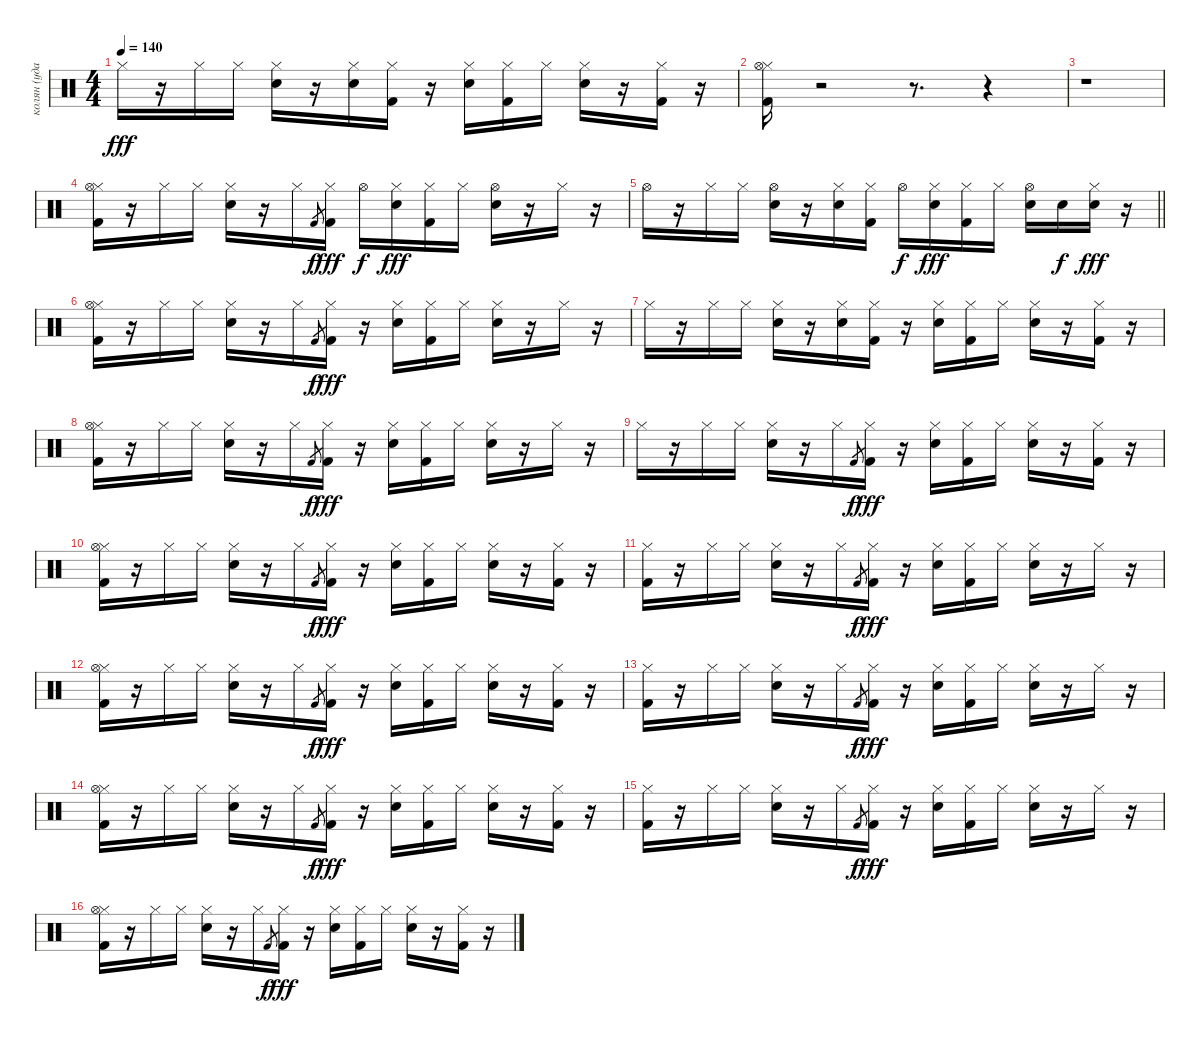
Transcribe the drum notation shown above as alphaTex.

\track ("колян (ударные)" "колян (уда") {instrument percussion}
\staff {score}
\articulation defaults
\ts (4 4)
\tempo 140
\clef neutral
\ks c "Hi-Hat (closed)".16{dy fff}
r.16 "Hi-Hat (closed)".16 "Hi-Hat (closed)".16 ("Hi-Hat (closed)" "Electric Snare (hit)").16 r.16 ("Hi-Hat (closed)" "Electric Snare (hit)").16 ("Hi-Hat (closed)" "Kick (hit) 2").16 r.16 ("Hi-Hat (closed)" "Electric Snare (hit)").16 ("Hi-Hat (closed)" "Kick (hit) 2").16 "Hi-Hat (closed)".16 ("Hi-Hat (closed)" "Electric Snare (hit)").16 r.16 ("Hi-Hat (closed)" "Kick (hit) 2").16 r.16 |
("Hi-Hat (closed)" "Hi-Hat (open)" "Kick (hit) 2").16 r.2 r.8{d} r.4 |
r.1 |
("Hi-Hat (closed)" "Hi-Hat (open)" "Kick (hit) 2").16 r.16 "Hi-Hat (closed)".16 "Hi-Hat (closed)".16 ("Hi-Hat (closed)" "Electric Snare (hit)").16 r.16 "Hi-Hat (closed)".16 "Kick (hit) 2".8{gr dy f} ("Hi-Hat (closed)" "Kick (hit) 2").16{dy fff} "Hi-Hat (open)".16{dy f} ("Hi-Hat (closed)" "Electric Snare (hit)").16{dy fff} ("Hi-Hat (closed)" "Kick (hit) 2").16 "Hi-Hat (closed)".16 ("Hi-Hat (open)" "Electric Snare (hit)").16 r.16 "Hi-Hat (closed)".16 r.16 |
\barLineRight lightlight "Hi-Hat (open)".16
r.16 "Hi-Hat (closed)".16 "Hi-Hat (closed)".16 ("Hi-Hat (open)" "Electric Snare (hit)").16 r.16 ("Hi-Hat (closed)" "Electric Snare (hit)").16 ("Hi-Hat (closed)" "Kick (hit) 2").16 "Hi-Hat (open)".16{dy f} ("Hi-Hat (closed)" "Electric Snare (hit)").16{dy fff} ("Hi-Hat (closed)" "Kick (hit) 2").16 "Hi-Hat (closed)".16 ("Hi-Hat (open)" "Electric Snare (hit)").16 "Electric Snare (hit)".16{dy f} ("Hi-Hat (closed)" "Electric Snare (hit)").16{dy fff} r.16 |
("Hi-Hat (closed)" "Hi-Hat (open)" "Kick (hit) 2").16 r.16 "Hi-Hat (closed)".16 "Hi-Hat (closed)".16 ("Hi-Hat (closed)" "Electric Snare (hit)").16 r.16 "Hi-Hat (closed)".16 "Kick (hit) 2".8{gr dy f} ("Hi-Hat (closed)" "Kick (hit) 2").16{dy fff} r.16 ("Hi-Hat (closed)" "Electric Snare (hit)").16 ("Hi-Hat (closed)" "Kick (hit) 2").16 "Hi-Hat (closed)".16 ("Hi-Hat (closed)" "Electric Snare (hit)").16 r.16 "Hi-Hat (closed)".16 r.16 |
"Hi-Hat (closed)".16 r.16 "Hi-Hat (closed)".16 "Hi-Hat (closed)".16 ("Hi-Hat (closed)" "Electric Snare (hit)").16 r.16 ("Hi-Hat (closed)" "Electric Snare (hit)").16 ("Hi-Hat (closed)" "Kick (hit) 2").16 r.16 ("Hi-Hat (closed)" "Electric Snare (hit)").16 ("Hi-Hat (closed)" "Kick (hit) 2").16 "Hi-Hat (closed)".16 ("Hi-Hat (closed)" "Electric Snare (hit)").16 r.16 ("Hi-Hat (closed)" "Kick (hit) 2").16 r.16 |
("Hi-Hat (closed)" "Hi-Hat (open)" "Kick (hit) 2").16 r.16 "Hi-Hat (closed)".16 "Hi-Hat (closed)".16 ("Hi-Hat (closed)" "Electric Snare (hit)").16 r.16 "Hi-Hat (closed)".16 "Kick (hit) 2".8{gr dy f} ("Hi-Hat (closed)" "Kick (hit) 2").16{dy fff} r.16 ("Hi-Hat (closed)" "Electric Snare (hit)").16 ("Hi-Hat (closed)" "Kick (hit) 2").16 "Hi-Hat (closed)".16 ("Hi-Hat (closed)" "Electric Snare (hit)").16 r.16 "Hi-Hat (closed)".16 r.16 |
"Hi-Hat (closed)".16 r.16 "Hi-Hat (closed)".16 "Hi-Hat (closed)".16 ("Hi-Hat (closed)" "Electric Snare (hit)").16 r.16 "Hi-Hat (closed)".16 "Kick (hit) 2".8{gr dy f} ("Hi-Hat (closed)" "Kick (hit) 2").16{dy fff} r.16 ("Hi-Hat (closed)" "Electric Snare (hit)").16 ("Hi-Hat (closed)" "Kick (hit) 2").16 "Hi-Hat (closed)".16 ("Hi-Hat (closed)" "Electric Snare (hit)").16 r.16 ("Hi-Hat (closed)" "Kick (hit) 2").16 r.16 |
("Hi-Hat (closed)" "Hi-Hat (open)" "Kick (hit) 2").16 r.16 "Hi-Hat (closed)".16 "Hi-Hat (closed)".16 ("Hi-Hat (closed)" "Electric Snare (hit)").16 r.16 "Hi-Hat (closed)".16 "Kick (hit) 2".8{gr dy f} ("Hi-Hat (closed)" "Kick (hit) 2").16{dy fff} r.16 ("Hi-Hat (closed)" "Electric Snare (hit)").16 ("Hi-Hat (closed)" "Kick (hit) 2").16 "Hi-Hat (closed)".16 ("Hi-Hat (closed)" "Electric Snare (hit)").16 r.16 ("Hi-Hat (closed)" "Kick (hit) 2").16 r.16 |
("Hi-Hat (closed)" "Kick (hit) 2").16 r.16 "Hi-Hat (closed)".16 "Hi-Hat (closed)".16 ("Hi-Hat (closed)" "Electric Snare (hit)").16 r.16 "Hi-Hat (closed)".16 "Kick (hit) 2".8{gr dy f} ("Hi-Hat (closed)" "Kick (hit) 2").16{dy fff} r.16 ("Hi-Hat (closed)" "Electric Snare (hit)").16 ("Hi-Hat (closed)" "Kick (hit) 2").16 "Hi-Hat (closed)".16 ("Hi-Hat (closed)" "Electric Snare (hit)").16 r.16 "Hi-Hat (closed)".16 r.16 |
("Hi-Hat (closed)" "Hi-Hat (open)" "Kick (hit) 2").16 r.16 "Hi-Hat (closed)".16 "Hi-Hat (closed)".16 ("Hi-Hat (closed)" "Electric Snare (hit)").16 r.16 "Hi-Hat (closed)".16 "Kick (hit) 2".8{gr dy f} ("Hi-Hat (closed)" "Kick (hit) 2").16{dy fff} r.16 ("Hi-Hat (closed)" "Electric Snare (hit)").16 ("Hi-Hat (closed)" "Kick (hit) 2").16 "Hi-Hat (closed)".16 ("Hi-Hat (closed)" "Electric Snare (hit)").16 r.16 ("Hi-Hat (closed)" "Kick (hit) 2").16 r.16 |
("Hi-Hat (closed)" "Kick (hit) 2").16 r.16 "Hi-Hat (closed)".16 "Hi-Hat (closed)".16 ("Hi-Hat (closed)" "Electric Snare (hit)").16 r.16 "Hi-Hat (closed)".16 "Kick (hit) 2".8{gr dy f} ("Hi-Hat (closed)" "Kick (hit) 2").16{dy fff} r.16 ("Hi-Hat (closed)" "Electric Snare (hit)").16 ("Hi-Hat (closed)" "Kick (hit) 2").16 "Hi-Hat (closed)".16 ("Hi-Hat (closed)" "Electric Snare (hit)").16 r.16 "Hi-Hat (closed)".16 r.16 |
("Hi-Hat (closed)" "Hi-Hat (open)" "Kick (hit) 2").16 r.16 "Hi-Hat (closed)".16 "Hi-Hat (closed)".16 ("Hi-Hat (closed)" "Electric Snare (hit)").16 r.16 "Hi-Hat (closed)".16 "Kick (hit) 2".8{gr dy f} ("Hi-Hat (closed)" "Kick (hit) 2").16{dy fff} r.16 ("Hi-Hat (closed)" "Electric Snare (hit)").16 ("Hi-Hat (closed)" "Kick (hit) 2").16 "Hi-Hat (closed)".16 ("Hi-Hat (closed)" "Electric Snare (hit)").16 r.16 ("Hi-Hat (closed)" "Kick (hit) 2").16 r.16 |
("Hi-Hat (closed)" "Kick (hit) 2").16 r.16 "Hi-Hat (closed)".16 "Hi-Hat (closed)".16 ("Hi-Hat (closed)" "Electric Snare (hit)").16 r.16 "Hi-Hat (closed)".16 "Kick (hit) 2".8{gr dy f} ("Hi-Hat (closed)" "Kick (hit) 2").16{dy fff} r.16 ("Hi-Hat (closed)" "Electric Snare (hit)").16 ("Hi-Hat (closed)" "Kick (hit) 2").16 "Hi-Hat (closed)".16 ("Hi-Hat (closed)" "Electric Snare (hit)").16 r.16 "Hi-Hat (closed)".16 r.16 |
("Hi-Hat (closed)" "Hi-Hat (open)" "Kick (hit) 2").16 r.16 "Hi-Hat (closed)".16 "Hi-Hat (closed)".16 ("Hi-Hat (closed)" "Electric Snare (hit)").16 r.16 "Hi-Hat (closed)".16 "Kick (hit) 2".8{gr dy f} ("Hi-Hat (closed)" "Kick (hit) 2").16{dy fff} r.16 ("Hi-Hat (closed)" "Electric Snare (hit)").16 ("Hi-Hat (closed)" "Kick (hit) 2").16 "Hi-Hat (closed)".16 ("Hi-Hat (closed)" "Electric Snare (hit)").16 r.16 ("Hi-Hat (closed)" "Kick (hit) 2").16 r.16
